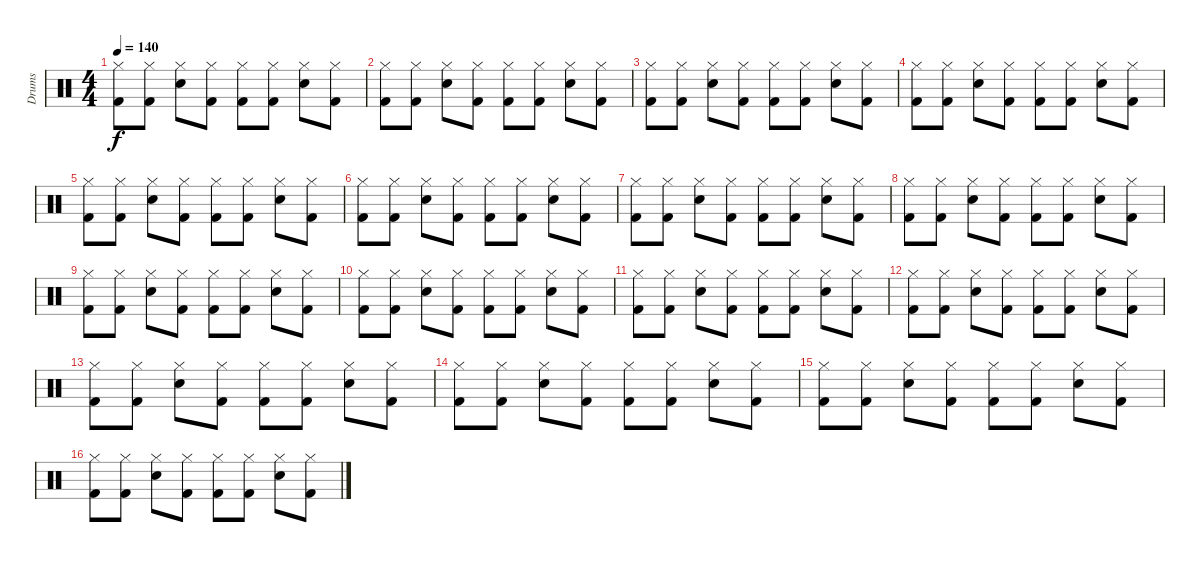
\track ("Drums" "Drums") {instrument percussion}
\staff {score}
\articulation defaults
\ts (4 4)
\tempo 140
\clef neutral
\ks c
("Hi-Hat (closed)" "Kick (hit) 2").8{dy f} ("Hi-Hat (closed)" "Kick (hit) 2").8 ("Hi-Hat (closed)" "Electric Snare (hit)").8 ("Hi-Hat (closed)" "Kick (hit) 2").8 ("Hi-Hat (closed)" "Kick (hit) 2").8 ("Hi-Hat (closed)" "Kick (hit) 2").8 ("Hi-Hat (closed)" "Electric Snare (hit)").8 ("Hi-Hat (closed)" "Kick (hit) 2").8 |
("Hi-Hat (closed)" "Kick (hit) 2").8 ("Hi-Hat (closed)" "Kick (hit) 2").8 ("Hi-Hat (closed)" "Electric Snare (hit)").8 ("Hi-Hat (closed)" "Kick (hit) 2").8 ("Hi-Hat (closed)" "Kick (hit) 2").8 ("Hi-Hat (closed)" "Kick (hit) 2").8 ("Hi-Hat (closed)" "Electric Snare (hit)").8 ("Hi-Hat (closed)" "Kick (hit) 2").8 |
("Hi-Hat (closed)" "Kick (hit) 2").8 ("Hi-Hat (closed)" "Kick (hit) 2").8 ("Hi-Hat (closed)" "Electric Snare (hit)").8 ("Hi-Hat (closed)" "Kick (hit) 2").8 ("Hi-Hat (closed)" "Kick (hit) 2").8 ("Hi-Hat (closed)" "Kick (hit) 2").8 ("Hi-Hat (closed)" "Electric Snare (hit)").8 ("Hi-Hat (closed)" "Kick (hit) 2").8 |
("Hi-Hat (closed)" "Kick (hit) 2").8 ("Hi-Hat (closed)" "Kick (hit) 2").8 ("Hi-Hat (closed)" "Electric Snare (hit)").8 ("Hi-Hat (closed)" "Kick (hit) 2").8 ("Hi-Hat (closed)" "Kick (hit) 2").8 ("Hi-Hat (closed)" "Kick (hit) 2").8 ("Hi-Hat (closed)" "Electric Snare (hit)").8 ("Hi-Hat (closed)" "Kick (hit) 2").8 |
("Hi-Hat (closed)" "Kick (hit) 2").8 ("Hi-Hat (closed)" "Kick (hit) 2").8 ("Hi-Hat (closed)" "Electric Snare (hit)").8 ("Hi-Hat (closed)" "Kick (hit) 2").8 ("Hi-Hat (closed)" "Kick (hit) 2").8 ("Hi-Hat (closed)" "Kick (hit) 2").8 ("Hi-Hat (closed)" "Electric Snare (hit)").8 ("Hi-Hat (closed)" "Kick (hit) 2").8 |
("Hi-Hat (closed)" "Kick (hit) 2").8 ("Hi-Hat (closed)" "Kick (hit) 2").8 ("Hi-Hat (closed)" "Electric Snare (hit)").8 ("Hi-Hat (closed)" "Kick (hit) 2").8 ("Hi-Hat (closed)" "Kick (hit) 2").8 ("Hi-Hat (closed)" "Kick (hit) 2").8 ("Hi-Hat (closed)" "Electric Snare (hit)").8 ("Hi-Hat (closed)" "Kick (hit) 2").8 |
("Hi-Hat (closed)" "Kick (hit) 2").8 ("Hi-Hat (closed)" "Kick (hit) 2").8 ("Hi-Hat (closed)" "Electric Snare (hit)").8 ("Hi-Hat (closed)" "Kick (hit) 2").8 ("Hi-Hat (closed)" "Kick (hit) 2").8 ("Hi-Hat (closed)" "Kick (hit) 2").8 ("Hi-Hat (closed)" "Electric Snare (hit)").8 ("Hi-Hat (closed)" "Kick (hit) 2").8 |
("Hi-Hat (closed)" "Kick (hit) 2").8 ("Hi-Hat (closed)" "Kick (hit) 2").8 ("Hi-Hat (closed)" "Electric Snare (hit)").8 ("Hi-Hat (closed)" "Kick (hit) 2").8 ("Hi-Hat (closed)" "Kick (hit) 2").8 ("Hi-Hat (closed)" "Kick (hit) 2").8 ("Hi-Hat (closed)" "Electric Snare (hit)").8 ("Hi-Hat (closed)" "Kick (hit) 2").8 |
("Hi-Hat (closed)" "Kick (hit) 2").8 ("Hi-Hat (closed)" "Kick (hit) 2").8 ("Hi-Hat (closed)" "Electric Snare (hit)").8 ("Hi-Hat (closed)" "Kick (hit) 2").8 ("Hi-Hat (closed)" "Kick (hit) 2").8 ("Hi-Hat (closed)" "Kick (hit) 2").8 ("Hi-Hat (closed)" "Electric Snare (hit)").8 ("Hi-Hat (closed)" "Kick (hit) 2").8 |
("Hi-Hat (closed)" "Kick (hit) 2").8 ("Hi-Hat (closed)" "Kick (hit) 2").8 ("Hi-Hat (closed)" "Electric Snare (hit)").8 ("Hi-Hat (closed)" "Kick (hit) 2").8 ("Hi-Hat (closed)" "Kick (hit) 2").8 ("Hi-Hat (closed)" "Kick (hit) 2").8 ("Hi-Hat (closed)" "Electric Snare (hit)").8 ("Hi-Hat (closed)" "Kick (hit) 2").8 |
("Hi-Hat (closed)" "Kick (hit) 2").8 ("Hi-Hat (closed)" "Kick (hit) 2").8 ("Hi-Hat (closed)" "Electric Snare (hit)").8 ("Hi-Hat (closed)" "Kick (hit) 2").8 ("Hi-Hat (closed)" "Kick (hit) 2").8 ("Hi-Hat (closed)" "Kick (hit) 2").8 ("Hi-Hat (closed)" "Electric Snare (hit)").8 ("Hi-Hat (closed)" "Kick (hit) 2").8 |
("Hi-Hat (closed)" "Kick (hit) 2").8 ("Hi-Hat (closed)" "Kick (hit) 2").8 ("Hi-Hat (closed)" "Electric Snare (hit)").8 ("Hi-Hat (closed)" "Kick (hit) 2").8 ("Hi-Hat (closed)" "Kick (hit) 2").8 ("Hi-Hat (closed)" "Kick (hit) 2").8 ("Hi-Hat (closed)" "Electric Snare (hit)").8 ("Hi-Hat (closed)" "Kick (hit) 2").8 |
("Hi-Hat (closed)" "Kick (hit) 2").8 ("Hi-Hat (closed)" "Kick (hit) 2").8 ("Hi-Hat (closed)" "Electric Snare (hit)").8 ("Hi-Hat (closed)" "Kick (hit) 2").8 ("Hi-Hat (closed)" "Kick (hit) 2").8 ("Hi-Hat (closed)" "Kick (hit) 2").8 ("Hi-Hat (closed)" "Electric Snare (hit)").8 ("Hi-Hat (closed)" "Kick (hit) 2").8 |
("Hi-Hat (closed)" "Kick (hit) 2").8 ("Hi-Hat (closed)" "Kick (hit) 2").8 ("Hi-Hat (closed)" "Electric Snare (hit)").8 ("Hi-Hat (closed)" "Kick (hit) 2").8 ("Hi-Hat (closed)" "Kick (hit) 2").8 ("Hi-Hat (closed)" "Kick (hit) 2").8 ("Hi-Hat (closed)" "Electric Snare (hit)").8 ("Hi-Hat (closed)" "Kick (hit) 2").8 |
("Hi-Hat (closed)" "Kick (hit) 2").8 ("Hi-Hat (closed)" "Kick (hit) 2").8 ("Hi-Hat (closed)" "Electric Snare (hit)").8 ("Hi-Hat (closed)" "Kick (hit) 2").8 ("Hi-Hat (closed)" "Kick (hit) 2").8 ("Hi-Hat (closed)" "Kick (hit) 2").8 ("Hi-Hat (closed)" "Electric Snare (hit)").8 ("Hi-Hat (closed)" "Kick (hit) 2").8 |
("Hi-Hat (closed)" "Kick (hit) 2").8 ("Hi-Hat (closed)" "Kick (hit) 2").8 ("Hi-Hat (closed)" "Electric Snare (hit)").8 ("Hi-Hat (closed)" "Kick (hit) 2").8 ("Hi-Hat (closed)" "Kick (hit) 2").8 ("Hi-Hat (closed)" "Kick (hit) 2").8 ("Hi-Hat (closed)" "Electric Snare (hit)").8 ("Hi-Hat (closed)" "Kick (hit) 2").8
